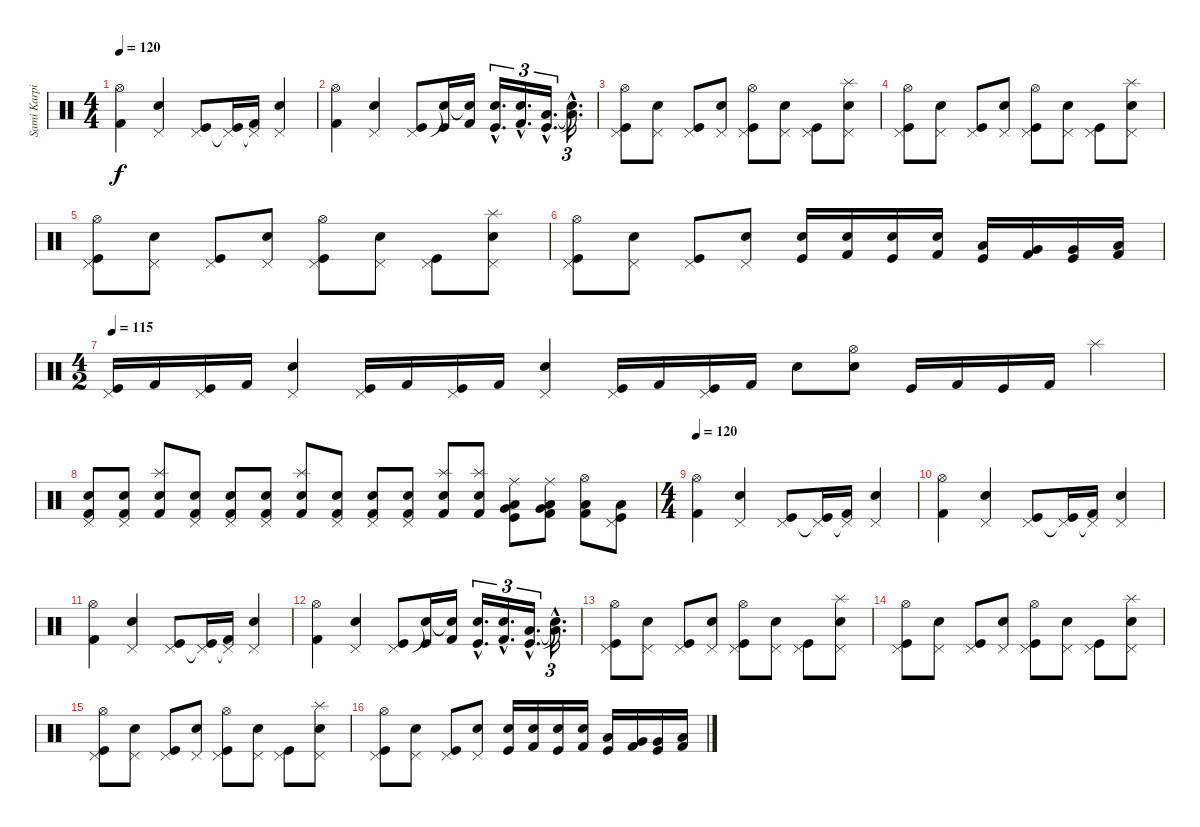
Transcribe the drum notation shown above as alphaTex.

\track ("Sami Karpinnen" "Sami Karpi") {instrument percussion}
\staff {score}
\articulation defaults
\ts (4 4)
\tempo 120
\clef neutral
\ks c
("Hi-Hat (open)" "Kick (hit) 2").4{dy f} ("Snare (hit) 2" "Pedal Hi-Hat (hit)").4 ("Pedal Hi-Hat (hit)" "Kick (hit)").8 ("Pedal Hi-Hat (hit)"{t} "Kick (hit)").16 ("Pedal Hi-Hat (hit)"{t} "Kick (hit) 2").16 ("Snare (hit) 2" "Pedal Hi-Hat (hit)").4 |
("Hi-Hat (open)" "Kick (hit) 2").4 ("Snare (hit) 2" "Pedal Hi-Hat (hit)").4 ("Pedal Hi-Hat (hit)" "Kick (hit)").8 ("Snare (hit)"{t} "Kick (hit)").16 ("Snare (hit)"{t} "Kick (hit) 2").16 ("Snare (hit) 2"{hac} "Kick (hit)"{hac}).16{d tu (3 2)} ("Snare (hit) 2"{hac} "Kick (hit) 2"{hac}).16{d tu (3 2)} ("Low Floor Tom (hit)"{hac} "Kick (hit)"{hac}).16{d tu (3 2)} ("Low Floor Tom (hit)"{hac t} "Snare (hit)"{hac t}).16{d tu (3 2)} |
("Hi-Hat (open)" "Pedal Hi-Hat (hit)" "Kick (hit)").8 ("Snare (hit) 2" "Pedal Hi-Hat (hit)").8 ("Pedal Hi-Hat (hit)" "Kick (hit)").8 ("Snare (hit) 2" "Pedal Hi-Hat (hit)").8 ("Hi-Hat (open)" "Pedal Hi-Hat (hit)" "Kick (hit)").8 ("Snare (hit) 2" "Pedal Hi-Hat (hit)").8 ("Pedal Hi-Hat (hit)" "Kick (hit)").8 ("Splash (hit)" "Snare (hit) 2" "Pedal Hi-Hat (hit)").8 |
("Hi-Hat (open)" "Pedal Hi-Hat (hit)" "Kick (hit)").8 ("Snare (hit) 2" "Pedal Hi-Hat (hit)").8 ("Pedal Hi-Hat (hit)" "Kick (hit)").8 ("Snare (hit) 2" "Pedal Hi-Hat (hit)").8 ("Hi-Hat (open)" "Pedal Hi-Hat (hit)" "Kick (hit)").8 ("Snare (hit) 2" "Pedal Hi-Hat (hit)").8 ("Pedal Hi-Hat (hit)" "Kick (hit)").8 ("Splash (hit)" "Snare (hit) 2" "Pedal Hi-Hat (hit)").8 |
("Hi-Hat (open)" "Pedal Hi-Hat (hit)" "Kick (hit)").8 ("Snare (hit) 2" "Pedal Hi-Hat (hit)").8 ("Pedal Hi-Hat (hit)" "Kick (hit)").8 ("Snare (hit) 2" "Pedal Hi-Hat (hit)").8 ("Hi-Hat (open)" "Pedal Hi-Hat (hit)" "Kick (hit)").8 ("Snare (hit) 2" "Pedal Hi-Hat (hit)").8 ("Pedal Hi-Hat (hit)" "Kick (hit)").8 ("Splash (hit)" "Snare (hit) 2" "Pedal Hi-Hat (hit)").8 |
("Hi-Hat (open)" "Pedal Hi-Hat (hit)" "Kick (hit)").8 ("Snare (hit) 2" "Pedal Hi-Hat (hit)").8 ("Pedal Hi-Hat (hit)" "Kick (hit)").8 ("Snare (hit) 2" "Pedal Hi-Hat (hit)").8 ("Snare (hit) 2" "Kick (hit)").16 ("Snare (hit) 2" "Kick (hit) 2").16 ("Snare (hit) 2" "Kick (hit)").16 ("Electric Snare (hit)" "Kick (hit) 2").16 ("Low Tom (hit)" "Kick (hit)").16 ("Very Low Tom (hit)" "Kick (hit) 2").16 ("Very Low Tom (hit)" "Kick (hit)").16 ("Low Floor Tom (hit)" "Kick (hit) 2").16 |
\ts (4 2)
\tempo 115
("Pedal Hi-Hat (hit)" "Kick (hit)").16 "Kick (hit) 2".16 ("Pedal Hi-Hat (hit)" "Kick (hit)").16 "Kick (hit) 2".16 ("Snare (hit) 2" "Pedal Hi-Hat (hit)").4 ("Pedal Hi-Hat (hit)" "Kick (hit)").16 "Kick (hit) 2".16 ("Pedal Hi-Hat (hit)" "Kick (hit)").16 "Kick (hit) 2".16 ("Snare (hit) 2" "Pedal Hi-Hat (hit)").4 ("Pedal Hi-Hat (hit)" "Kick (hit)").16 "Kick (hit) 2".16 ("Pedal Hi-Hat (hit)" "Kick (hit)").16 "Kick (hit) 2".16 "Snare (hit) 2".8 ("Snare (hit) 2" "Hi-Hat (open)").8 "Kick (hit)".16 "Kick (hit) 2".16 "Kick (hit)".16 "Kick (hit) 2".16 "Splash (hit)".4 |
("Electric Snare (hit)" "Pedal Hi-Hat (hit)" "Kick (hit) 2").8 ("Electric Snare (hit)" "Pedal Hi-Hat (hit)" "Kick (hit) 2").8 ("Electric Snare (hit)" "Splash (hit)" "Kick (hit) 2").8 ("Electric Snare (hit)" "Pedal Hi-Hat (hit)" "Kick (hit) 2").8 ("Electric Snare (hit)" "Pedal Hi-Hat (hit)" "Kick (hit) 2").8 ("Electric Snare (hit)" "Pedal Hi-Hat (hit)" "Kick (hit) 2").8 ("Electric Snare (hit)" "Splash (hit)" "Kick (hit) 2").8 ("Electric Snare (hit)" "Pedal Hi-Hat (hit)" "Kick (hit) 2").8 ("Electric Snare (hit)" "Pedal Hi-Hat (hit)" "Kick (hit) 2").8 ("Electric Snare (hit)" "Pedal Hi-Hat (hit)" "Kick (hit) 2").8 ("Electric Snare (hit)" "Splash (hit)" "Kick (hit) 2").8 ("Electric Snare (hit)" "Splash (hit)" "Kick (hit) 2").8 ("Ride (middle)" "Very Low Tom (hit)" "Low Floor Tom (hit)" "Kick (hit)").8 ("Ride (middle)" "Very Low Tom (hit)" "Low Floor Tom (hit)" "Kick (hit) 2").8 ("Low Tom (hit)" "Hi-Hat (open)" "Kick (hit) 2").8 ("Pedal Hi-Hat (hit)" "Low Floor Tom (hit)" "Kick (hit)").8 |
\ts (4 4)
\tempo 120
("Hi-Hat (open)" "Kick (hit) 2").4 ("Snare (hit) 2" "Pedal Hi-Hat (hit)").4 ("Pedal Hi-Hat (hit)" "Kick (hit)").8 ("Pedal Hi-Hat (hit)"{t} "Kick (hit)").16 ("Pedal Hi-Hat (hit)"{t} "Kick (hit) 2").16 ("Snare (hit) 2" "Pedal Hi-Hat (hit)").4 |
("Hi-Hat (open)" "Kick (hit) 2").4 ("Snare (hit) 2" "Pedal Hi-Hat (hit)").4 ("Pedal Hi-Hat (hit)" "Kick (hit)").8 ("Pedal Hi-Hat (hit)"{t} "Kick (hit)").16 ("Pedal Hi-Hat (hit)"{t} "Kick (hit) 2").16 ("Snare (hit) 2" "Pedal Hi-Hat (hit)").4 |
("Hi-Hat (open)" "Kick (hit) 2").4 ("Snare (hit) 2" "Pedal Hi-Hat (hit)").4 ("Pedal Hi-Hat (hit)" "Kick (hit)").8 ("Pedal Hi-Hat (hit)"{t} "Kick (hit)").16 ("Pedal Hi-Hat (hit)"{t} "Kick (hit) 2").16 ("Snare (hit) 2" "Pedal Hi-Hat (hit)").4 |
("Hi-Hat (open)" "Kick (hit) 2").4 ("Snare (hit) 2" "Pedal Hi-Hat (hit)").4 ("Pedal Hi-Hat (hit)" "Kick (hit)").8 ("Snare (hit)"{t} "Kick (hit)").16 ("Snare (hit)"{t} "Kick (hit) 2").16 ("Snare (hit) 2"{hac} "Kick (hit)"{hac}).16{d tu (3 2)} ("Snare (hit) 2"{hac} "Kick (hit) 2"{hac}).16{d tu (3 2)} ("Low Floor Tom (hit)"{hac} "Kick (hit)"{hac}).16{d tu (3 2)} ("Low Floor Tom (hit)"{hac t} "Snare (hit)"{hac t}).16{d tu (3 2)} |
("Hi-Hat (open)" "Pedal Hi-Hat (hit)" "Kick (hit)").8 ("Snare (hit) 2" "Pedal Hi-Hat (hit)").8 ("Pedal Hi-Hat (hit)" "Kick (hit)").8 ("Snare (hit) 2" "Pedal Hi-Hat (hit)").8 ("Hi-Hat (open)" "Pedal Hi-Hat (hit)" "Kick (hit)").8 ("Snare (hit) 2" "Pedal Hi-Hat (hit)").8 ("Pedal Hi-Hat (hit)" "Kick (hit)").8 ("Splash (hit)" "Snare (hit) 2" "Pedal Hi-Hat (hit)").8 |
("Hi-Hat (open)" "Pedal Hi-Hat (hit)" "Kick (hit)").8 ("Snare (hit) 2" "Pedal Hi-Hat (hit)").8 ("Pedal Hi-Hat (hit)" "Kick (hit)").8 ("Snare (hit) 2" "Pedal Hi-Hat (hit)").8 ("Hi-Hat (open)" "Pedal Hi-Hat (hit)" "Kick (hit)").8 ("Snare (hit) 2" "Pedal Hi-Hat (hit)").8 ("Pedal Hi-Hat (hit)" "Kick (hit)").8 ("Splash (hit)" "Snare (hit) 2" "Pedal Hi-Hat (hit)").8 |
("Hi-Hat (open)" "Pedal Hi-Hat (hit)" "Kick (hit)").8 ("Snare (hit) 2" "Pedal Hi-Hat (hit)").8 ("Pedal Hi-Hat (hit)" "Kick (hit)").8 ("Snare (hit) 2" "Pedal Hi-Hat (hit)").8 ("Hi-Hat (open)" "Pedal Hi-Hat (hit)" "Kick (hit)").8 ("Snare (hit) 2" "Pedal Hi-Hat (hit)").8 ("Pedal Hi-Hat (hit)" "Kick (hit)").8 ("Splash (hit)" "Snare (hit) 2" "Pedal Hi-Hat (hit)").8 |
("Hi-Hat (open)" "Pedal Hi-Hat (hit)" "Kick (hit)").8 ("Snare (hit) 2" "Pedal Hi-Hat (hit)").8 ("Pedal Hi-Hat (hit)" "Kick (hit)").8 ("Snare (hit) 2" "Pedal Hi-Hat (hit)").8 ("Snare (hit) 2" "Kick (hit)").16 ("Snare (hit) 2" "Kick (hit) 2").16 ("Snare (hit) 2" "Kick (hit)").16 ("Electric Snare (hit)" "Kick (hit) 2").16 ("Low Tom (hit)" "Kick (hit)").16 ("Very Low Tom (hit)" "Kick (hit) 2").16 ("Very Low Tom (hit)" "Kick (hit)").16 ("Low Floor Tom (hit)" "Kick (hit) 2").16
